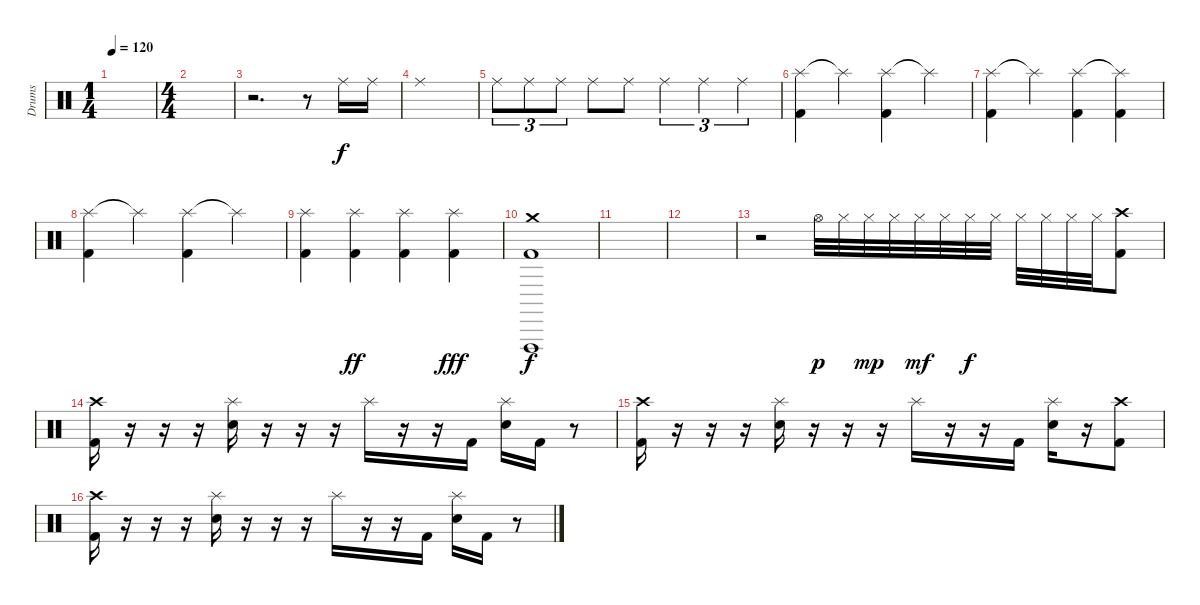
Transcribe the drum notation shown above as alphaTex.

\track ("Drums" "Drums") {instrument percussion}
\staff {score}
\articulation defaults
\ts (1 4)
\tempo 120
\clef neutral
\ks c
|
\ts (4 4)
|
r.2{d} r.8 "Ride (middle)".16 "Ride (middle)".16 |
"Ride (middle)".1 |
"Ride (middle)".8{tu (3 2)} "Ride (middle)".8{tu (3 2)} "Ride (middle)".8{tu (3 2)} "Ride (middle)".8 "Ride (middle)".8 "Ride (middle)".4{tu (3 2)} "Ride (middle)".4{tu (3 2)} "Ride (middle)".4{tu (3 2)} |
("Splash (hit)" "Kick (hit) 2").4 "Splash (hit)"{t}.4 ("Splash (hit)" "Kick (hit) 2").4 "Splash (hit)"{t}.4 |
("Splash (hit)" "Kick (hit) 2").4 "Splash (hit)"{t}.4 ("Splash (hit)" "Kick (hit) 2").4 ("Splash (hit)"{t} "Kick (hit) 2").4 |
("Splash (hit)" "Kick (hit) 2").4 "Splash (hit)"{t}.4 ("Splash (hit)" "Kick (hit) 2").4 "Splash (hit)"{t}.4 |
("Splash (hit)" "Kick (hit) 2").4 ("Splash (hit)" "Kick (hit) 2").4{dy ff} ("Splash (hit)" "Kick (hit) 2").4 ("Splash (hit)" "Kick (hit) 2").4{dy fff} |
("Crash medium (hit)" "Vibraslap (hit)" "Kick (hit) 2").1{dy f} |
|
|
r.2 "Hi-Hat (open)".32{dy p} "Hi-Hat (closed)".32 "Hi-Hat (closed)".32{dy mp} "Hi-Hat (closed)".32 "Hi-Hat (closed)".32{dy mf} "Hi-Hat (closed)".32 "Hi-Hat (closed)".32{dy f} "Hi-Hat (closed)".32 "Hi-Hat (closed)".32 "Hi-Hat (closed)".32 "Hi-Hat (closed)".32 "Hi-Hat (closed)".32 ("Crash high (hit)" "Kick (hit) 2").8 |
("Crash high (hit)" "Kick (hit) 2").16 r.16 r.16 r.16 ("Splash (hit)" "Snare (hit) 2").16 r.16 r.16 r.16 "Splash (hit)".16 r.16 r.16 "Kick (hit) 2".16 ("Splash (hit)" "Snare (hit) 2").16 "Kick (hit) 2".16 r.8 |
("Crash high (hit)" "Kick (hit) 2").16 r.16 r.16 r.16 ("Splash (hit)" "Snare (hit) 2").16 r.16 r.16 r.16 "Splash (hit)".16 r.16 r.16 "Kick (hit) 2".16 ("Splash (hit)" "Snare (hit) 2").16 r.16 ("Crash high (hit)" "Kick (hit) 2").8 |
("Crash high (hit)" "Kick (hit) 2").16 r.16 r.16 r.16 ("Splash (hit)" "Snare (hit) 2").16 r.16 r.16 r.16 "Splash (hit)".16 r.16 r.16 "Kick (hit) 2".16 ("Splash (hit)" "Snare (hit) 2").16 "Kick (hit) 2".16 r.8
